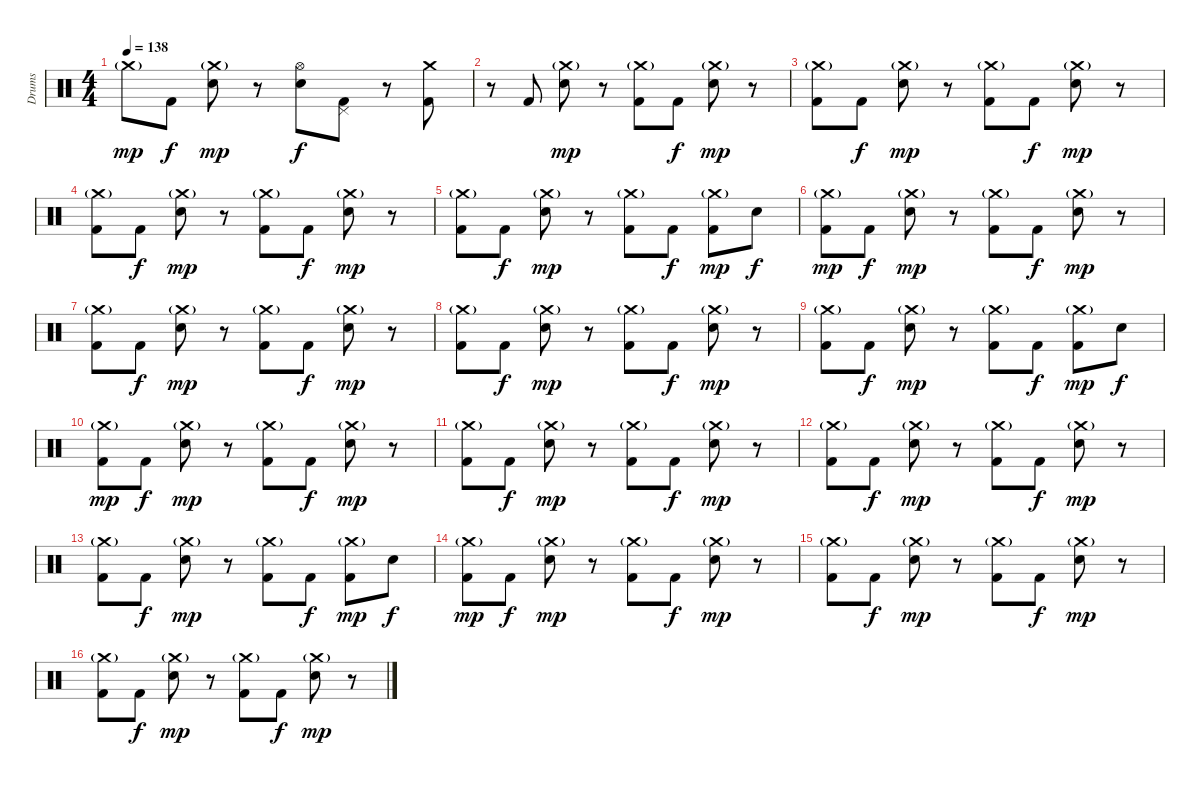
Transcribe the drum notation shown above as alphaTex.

\track ("Drums" "Drums") {instrument percussion}
\staff {score}
\articulation defaults
\ts (4 4)
\tempo 138
\clef neutral
\ks c "Crash medium (hit)"{g}.8{dy mp} "Kick (hit) 2".8{dy f}
("Crash medium (hit)"{g} "Electric Snare (hit)").8{dy mp} r.8 ("Hi-Hat (open)" "Electric Snare (hit)").8{dy f} ("Pedal Hi-Hat (hit)" "Kick (hit) 2").8 r.8 ("Crash medium (hit)" "Kick (hit) 2").8 |
r.8 "Kick (hit) 2".8 ("Crash medium (hit)"{g} "Electric Snare (hit)").8{dy mp} r.8 ("Crash medium (hit)"{g} "Kick (hit) 2").8 "Kick (hit) 2".8{dy f} ("Crash medium (hit)"{g} "Electric Snare (hit)").8{dy mp} r.8 |
("Crash medium (hit)"{g} "Kick (hit) 2").8 "Kick (hit) 2".8{dy f} ("Crash medium (hit)"{g} "Electric Snare (hit)").8{dy mp} r.8 ("Crash medium (hit)"{g} "Kick (hit) 2").8 "Kick (hit) 2".8{dy f} ("Crash medium (hit)"{g} "Electric Snare (hit)").8{dy mp} r.8 |
("Crash medium (hit)"{g} "Kick (hit) 2").8 "Kick (hit) 2".8{dy f} ("Crash medium (hit)"{g} "Electric Snare (hit)").8{dy mp} r.8 ("Crash medium (hit)"{g} "Kick (hit) 2").8 "Kick (hit) 2".8{dy f} ("Crash medium (hit)"{g} "Electric Snare (hit)").8{dy mp} r.8 |
("Crash medium (hit)"{g} "Kick (hit) 2").8 "Kick (hit) 2".8{dy f} ("Crash medium (hit)"{g} "Electric Snare (hit)").8{dy mp} r.8 ("Crash medium (hit)"{g} "Kick (hit) 2").8 "Kick (hit) 2".8{dy f} ("Crash medium (hit)"{g} "Kick (hit) 2").8{dy mp} "Electric Snare (hit)".8{dy f} |
("Crash medium (hit)"{g} "Kick (hit) 2").8{dy mp} "Kick (hit) 2".8{dy f} ("Crash medium (hit)"{g} "Electric Snare (hit)").8{dy mp} r.8 ("Crash medium (hit)"{g} "Kick (hit) 2").8 "Kick (hit) 2".8{dy f} ("Crash medium (hit)"{g} "Electric Snare (hit)").8{dy mp} r.8 |
("Crash medium (hit)"{g} "Kick (hit) 2").8 "Kick (hit) 2".8{dy f} ("Crash medium (hit)"{g} "Electric Snare (hit)").8{dy mp} r.8 ("Crash medium (hit)"{g} "Kick (hit) 2").8 "Kick (hit) 2".8{dy f} ("Crash medium (hit)"{g} "Electric Snare (hit)").8{dy mp} r.8 |
("Crash medium (hit)"{g} "Kick (hit) 2").8 "Kick (hit) 2".8{dy f} ("Crash medium (hit)"{g} "Electric Snare (hit)").8{dy mp} r.8 ("Crash medium (hit)"{g} "Kick (hit) 2").8 "Kick (hit) 2".8{dy f} ("Crash medium (hit)"{g} "Electric Snare (hit)").8{dy mp} r.8 |
("Crash medium (hit)"{g} "Kick (hit) 2").8 "Kick (hit) 2".8{dy f} ("Crash medium (hit)"{g} "Electric Snare (hit)").8{dy mp} r.8 ("Crash medium (hit)"{g} "Kick (hit) 2").8 "Kick (hit) 2".8{dy f} ("Crash medium (hit)"{g} "Kick (hit) 2").8{dy mp} "Electric Snare (hit)".8{dy f} |
("Crash medium (hit)"{g} "Kick (hit) 2").8{dy mp} "Kick (hit) 2".8{dy f} ("Crash medium (hit)"{g} "Electric Snare (hit)").8{dy mp} r.8 ("Crash medium (hit)"{g} "Kick (hit) 2").8 "Kick (hit) 2".8{dy f} ("Crash medium (hit)"{g} "Electric Snare (hit)").8{dy mp} r.8 |
("Crash medium (hit)"{g} "Kick (hit) 2").8 "Kick (hit) 2".8{dy f} ("Crash medium (hit)"{g} "Electric Snare (hit)").8{dy mp} r.8 ("Crash medium (hit)"{g} "Kick (hit) 2").8 "Kick (hit) 2".8{dy f} ("Crash medium (hit)"{g} "Electric Snare (hit)").8{dy mp} r.8 |
("Crash medium (hit)"{g} "Kick (hit) 2").8 "Kick (hit) 2".8{dy f} ("Crash medium (hit)"{g} "Electric Snare (hit)").8{dy mp} r.8 ("Crash medium (hit)"{g} "Kick (hit) 2").8 "Kick (hit) 2".8{dy f} ("Crash medium (hit)"{g} "Electric Snare (hit)").8{dy mp} r.8 |
("Crash medium (hit)"{g} "Kick (hit) 2").8 "Kick (hit) 2".8{dy f} ("Crash medium (hit)"{g} "Electric Snare (hit)").8{dy mp} r.8 ("Crash medium (hit)"{g} "Kick (hit) 2").8 "Kick (hit) 2".8{dy f} ("Crash medium (hit)"{g} "Kick (hit) 2").8{dy mp} "Electric Snare (hit)".8{dy f} |
("Crash medium (hit)"{g} "Kick (hit) 2").8{dy mp} "Kick (hit) 2".8{dy f} ("Crash medium (hit)"{g} "Electric Snare (hit)").8{dy mp} r.8 ("Crash medium (hit)"{g} "Kick (hit) 2").8 "Kick (hit) 2".8{dy f} ("Crash medium (hit)"{g} "Electric Snare (hit)").8{dy mp} r.8 |
("Crash medium (hit)"{g} "Kick (hit) 2").8 "Kick (hit) 2".8{dy f} ("Crash medium (hit)"{g} "Electric Snare (hit)").8{dy mp} r.8 ("Crash medium (hit)"{g} "Kick (hit) 2").8 "Kick (hit) 2".8{dy f} ("Crash medium (hit)"{g} "Electric Snare (hit)").8{dy mp} r.8 |
("Crash medium (hit)"{g} "Kick (hit) 2").8 "Kick (hit) 2".8{dy f} ("Crash medium (hit)"{g} "Electric Snare (hit)").8{dy mp} r.8 ("Crash medium (hit)"{g} "Kick (hit) 2").8 "Kick (hit) 2".8{dy f} ("Crash medium (hit)"{g} "Electric Snare (hit)").8{dy mp} r.8
